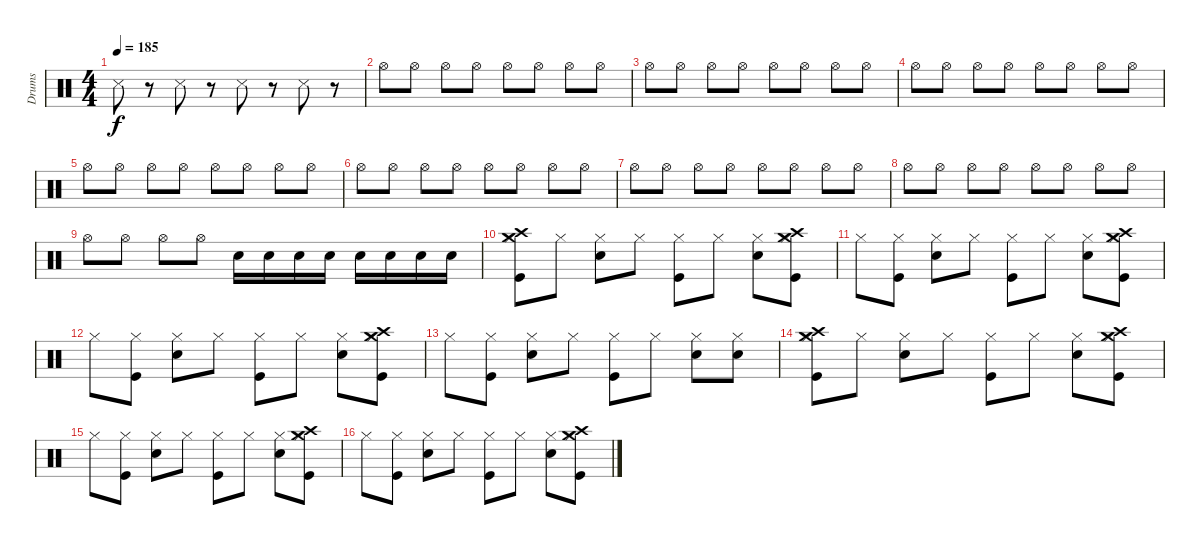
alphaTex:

\track ("Drums" "Drums") {instrument percussion}
\staff {score}
\articulation defaults
\ts (4 4)
\tempo 185
\clef neutral
\ks c "Snare (side stick) 3".8{dy f}
r.8 "Snare (side stick) 3".8 r.8 "Snare (side stick) 3".8 r.8 "Snare (side stick) 3".8 r.8 |
"Hi-Hat (open)".8 "Hi-Hat (open)".8 "Hi-Hat (open)".8 "Hi-Hat (open)".8 "Hi-Hat (open)".8 "Hi-Hat (open)".8 "Hi-Hat (open)".8 "Hi-Hat (open)".8 |
"Hi-Hat (open)".8 "Hi-Hat (open)".8 "Hi-Hat (open)".8 "Hi-Hat (open)".8 "Hi-Hat (open)".8 "Hi-Hat (open)".8 "Hi-Hat (open)".8 "Hi-Hat (open)".8 |
"Hi-Hat (open)".8 "Hi-Hat (open)".8 "Hi-Hat (open)".8 "Hi-Hat (open)".8 "Hi-Hat (open)".8 "Hi-Hat (open)".8 "Hi-Hat (open)".8 "Hi-Hat (open)".8 |
"Hi-Hat (open)".8 "Hi-Hat (open)".8 "Hi-Hat (open)".8 "Hi-Hat (open)".8 "Hi-Hat (open)".8 "Hi-Hat (open)".8 "Hi-Hat (open)".8 "Hi-Hat (open)".8 |
"Hi-Hat (open)".8 "Hi-Hat (open)".8 "Hi-Hat (open)".8 "Hi-Hat (open)".8 "Hi-Hat (open)".8 "Hi-Hat (open)".8 "Hi-Hat (open)".8 "Hi-Hat (open)".8 |
"Hi-Hat (open)".8 "Hi-Hat (open)".8 "Hi-Hat (open)".8 "Hi-Hat (open)".8 "Hi-Hat (open)".8 "Hi-Hat (open)".8 "Hi-Hat (open)".8 "Hi-Hat (open)".8 |
"Hi-Hat (open)".8 "Hi-Hat (open)".8 "Hi-Hat (open)".8 "Hi-Hat (open)".8 "Hi-Hat (open)".8 "Hi-Hat (open)".8 "Hi-Hat (open)".8 "Hi-Hat (open)".8 |
"Hi-Hat (open)".8 "Hi-Hat (open)".8 "Hi-Hat (open)".8 "Hi-Hat (open)".8 "Electric Snare (hit)".16 "Electric Snare (hit)".16 "Electric Snare (hit)".16 "Electric Snare (hit)".16 "Electric Snare (hit)".16 "Electric Snare (hit)".16 "Electric Snare (hit)".16 "Electric Snare (hit)".16 |
("Hi-Hat (closed)" "Kick (hit)" "Crash high (hit)" "Crash medium (hit)").8 "Hi-Hat (closed)".8 ("Electric Snare (hit)" "Hi-Hat (closed)").8 "Hi-Hat (closed)".8 ("Hi-Hat (closed)" "Kick (hit)").8 "Hi-Hat (closed)".8 ("Hi-Hat (closed)" "Electric Snare (hit)").8 ("Hi-Hat (closed)" "Kick (hit)" "Crash high (hit)" "Crash medium (hit)").8 |
"Hi-Hat (closed)".8 ("Hi-Hat (closed)" "Kick (hit)").8 ("Hi-Hat (closed)" "Electric Snare (hit)").8 "Hi-Hat (closed)".8 ("Kick (hit)" "Hi-Hat (closed)").8 "Hi-Hat (closed)".8 ("Electric Snare (hit)" "Hi-Hat (closed)").8 ("Crash medium (hit)" "Hi-Hat (closed)" "Kick (hit)" "Crash high (hit)").8 |
"Hi-Hat (closed)".8 ("Hi-Hat (closed)" "Kick (hit)").8 ("Electric Snare (hit)" "Hi-Hat (closed)").8 "Hi-Hat (closed)".8 ("Hi-Hat (closed)" "Kick (hit)").8 "Hi-Hat (closed)".8 ("Hi-Hat (closed)" "Electric Snare (hit)").8 ("Hi-Hat (closed)" "Kick (hit)" "Crash high (hit)" "Crash medium (hit)").8 |
"Hi-Hat (closed)".8 ("Kick (hit)" "Hi-Hat (closed)").8 ("Electric Snare (hit)" "Hi-Hat (closed)").8 "Hi-Hat (closed)".8 ("Hi-Hat (closed)" "Kick (hit)").8 "Hi-Hat (closed)".8 ("Hi-Hat (closed)" "Electric Snare (hit)").8 ("Electric Snare (hit)" "Hi-Hat (closed)").8 |
("Crash high (hit)" "Crash medium (hit)" "Hi-Hat (closed)" "Kick (hit)").8 "Hi-Hat (closed)".8 ("Electric Snare (hit)" "Hi-Hat (closed)").8 "Hi-Hat (closed)".8 ("Hi-Hat (closed)" "Kick (hit)").8 "Hi-Hat (closed)".8 ("Hi-Hat (closed)" "Electric Snare (hit)").8 ("Crash medium (hit)" "Crash high (hit)" "Hi-Hat (closed)" "Kick (hit)").8 |
"Hi-Hat (closed)".8 ("Kick (hit)" "Hi-Hat (closed)").8 ("Electric Snare (hit)" "Hi-Hat (closed)").8 "Hi-Hat (closed)".8 ("Hi-Hat (closed)" "Kick (hit)").8 "Hi-Hat (closed)".8 ("Hi-Hat (closed)" "Electric Snare (hit)").8 ("Crash medium (hit)" "Hi-Hat (closed)" "Kick (hit)" "Crash high (hit)").8 |
"Hi-Hat (closed)".8 ("Kick (hit)" "Hi-Hat (closed)").8 ("Electric Snare (hit)" "Hi-Hat (closed)").8 "Hi-Hat (closed)".8 ("Hi-Hat (closed)" "Kick (hit)").8 "Hi-Hat (closed)".8 ("Hi-Hat (closed)" "Electric Snare (hit)").8 ("Crash medium (hit)" "Hi-Hat (closed)" "Kick (hit)" "Crash high (hit)").8
